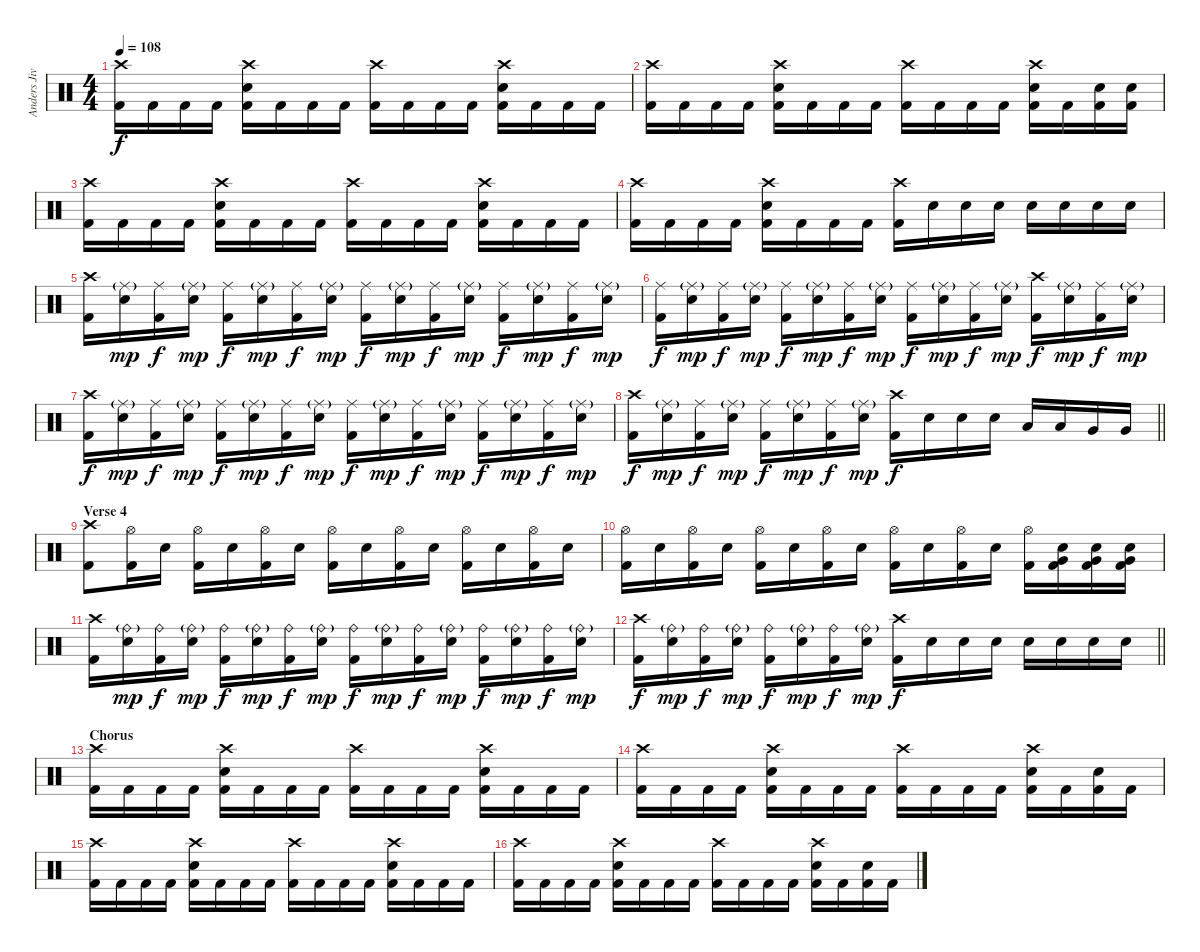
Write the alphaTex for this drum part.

\track ("Anders Jivarp" "Anders Jiv") {instrument percussion}
\staff {score}
\articulation defaults
\ts (4 4)
\section ("" "")
\tempo 108
\clef neutral
\ks c
("Crash high (hit)" "Kick (hit) 2").16{dy f} "Kick (hit) 2".16 "Kick (hit) 2".16 "Kick (hit) 2".16 ("Crash high (hit)" "Snare (hit) 2" "Kick (hit) 2").16 "Kick (hit) 2".16 "Kick (hit) 2".16 "Kick (hit) 2".16 ("Crash high (hit)" "Kick (hit) 2").16 "Kick (hit) 2".16 "Kick (hit) 2".16 "Kick (hit) 2".16 ("Crash high (hit)" "Snare (hit) 2" "Kick (hit) 2").16 "Kick (hit) 2".16 "Kick (hit) 2".16 "Kick (hit) 2".16 |
("Crash high (hit)" "Kick (hit) 2").16 "Kick (hit) 2".16 "Kick (hit) 2".16 "Kick (hit) 2".16 ("Crash high (hit)" "Snare (hit) 2" "Kick (hit) 2").16 "Kick (hit) 2".16 "Kick (hit) 2".16 "Kick (hit) 2".16 ("Crash high (hit)" "Kick (hit) 2").16 "Kick (hit) 2".16 "Kick (hit) 2".16 "Kick (hit) 2".16 ("Crash high (hit)" "Snare (hit) 2" "Kick (hit) 2").16 "Kick (hit) 2".16 ("Snare (hit) 2" "Kick (hit) 2").16 ("Snare (hit) 2" "Kick (hit) 2").16 |
("Crash high (hit)" "Kick (hit) 2").16 "Kick (hit) 2".16 "Kick (hit) 2".16 "Kick (hit) 2".16 ("Crash high (hit)" "Snare (hit) 2" "Kick (hit) 2").16 "Kick (hit) 2".16 "Kick (hit) 2".16 "Kick (hit) 2".16 ("Crash high (hit)" "Kick (hit) 2").16 "Kick (hit) 2".16 "Kick (hit) 2".16 "Kick (hit) 2".16 ("Crash high (hit)" "Snare (hit) 2" "Kick (hit) 2").16 "Kick (hit) 2".16 "Kick (hit) 2".16 "Kick (hit) 2".16 |
("Crash high (hit)" "Kick (hit) 2").16 "Kick (hit) 2".16 "Kick (hit) 2".16 "Kick (hit) 2".16 ("Crash high (hit)" "Snare (hit) 2" "Kick (hit) 2").16 "Kick (hit) 2".16 "Kick (hit) 2".16 "Kick (hit) 2".16 ("Crash high (hit)" "Kick (hit) 2").16 "Snare (hit) 2".16 "Snare (hit) 2".16 "Snare (hit) 2".16 "Snare (hit) 2".16 "Snare (hit) 2".16 "Snare (hit) 2".16 "Snare (hit) 2".16 |
("Crash high (hit)" "Kick (hit) 2").16 ("Ride (middle)"{g} "Snare (hit) 2").16{dy mp} ("Ride (middle)" "Kick (hit) 2").16{dy f} ("Ride (middle)"{g} "Snare (hit) 2").16{dy mp} ("Ride (middle)" "Kick (hit) 2").16{dy f} ("Ride (middle)"{g} "Snare (hit) 2").16{dy mp} ("Ride (middle)" "Kick (hit) 2").16{dy f} ("Ride (middle)"{g} "Snare (hit) 2").16{dy mp} ("Ride (middle)" "Kick (hit) 2").16{dy f} ("Ride (middle)"{g} "Snare (hit) 2").16{dy mp} ("Ride (middle)" "Kick (hit) 2").16{dy f} ("Ride (middle)"{g} "Snare (hit) 2").16{dy mp} ("Ride (middle)" "Kick (hit) 2").16{dy f} ("Ride (middle)"{g} "Snare (hit) 2").16{dy mp} ("Ride (middle)" "Kick (hit) 2").16{dy f} ("Ride (middle)"{g} "Snare (hit) 2").16{dy mp} |
("Ride (middle)" "Kick (hit) 2").16{dy f} ("Ride (middle)"{g} "Snare (hit) 2").16{dy mp} ("Ride (middle)" "Kick (hit) 2").16{dy f} ("Ride (middle)"{g} "Snare (hit) 2").16{dy mp} ("Ride (middle)" "Kick (hit) 2").16{dy f} ("Ride (middle)"{g} "Snare (hit) 2").16{dy mp} ("Ride (middle)" "Kick (hit) 2").16{dy f} ("Ride (middle)"{g} "Snare (hit) 2").16{dy mp} ("Ride (middle)" "Kick (hit) 2").16{dy f} ("Ride (middle)"{g} "Snare (hit) 2").16{dy mp} ("Ride (middle)" "Kick (hit) 2").16{dy f} ("Ride (middle)"{g} "Snare (hit) 2").16{dy mp} ("Crash high (hit)" "Kick (hit) 2").16{dy f} ("Ride (middle)"{g} "Snare (hit) 2").16{dy mp} ("Ride (middle)" "Kick (hit) 2").16{dy f} ("Ride (middle)"{g} "Snare (hit) 2").16{dy mp} |
("Crash high (hit)" "Kick (hit) 2").16{dy f} ("Ride (middle)"{g} "Snare (hit) 2").16{dy mp} ("Ride (middle)" "Kick (hit) 2").16{dy f} ("Ride (middle)"{g} "Snare (hit) 2").16{dy mp} ("Ride (middle)" "Kick (hit) 2").16{dy f} ("Ride (middle)"{g} "Snare (hit) 2").16{dy mp} ("Ride (middle)" "Kick (hit) 2").16{dy f} ("Ride (middle)"{g} "Snare (hit) 2").16{dy mp} ("Ride (middle)" "Kick (hit) 2").16{dy f} ("Ride (middle)"{g} "Snare (hit) 2").16{dy mp} ("Ride (middle)" "Kick (hit) 2").16{dy f} ("Ride (middle)"{g} "Snare (hit) 2").16{dy mp} ("Ride (middle)" "Kick (hit) 2").16{dy f} ("Ride (middle)"{g} "Snare (hit) 2").16{dy mp} ("Ride (middle)" "Kick (hit) 2").16{dy f} ("Ride (middle)"{g} "Snare (hit) 2").16{dy mp} |
\barLineRight lightlight
("Crash high (hit)" "Kick (hit) 2").16{dy f} ("Ride (middle)"{g} "Snare (hit) 2").16{dy mp} ("Ride (middle)" "Kick (hit) 2").16{dy f} ("Ride (middle)"{g} "Snare (hit) 2").16{dy mp} ("Ride (middle)" "Kick (hit) 2").16{dy f} ("Ride (middle)"{g} "Snare (hit) 2").16{dy mp} ("Ride (middle)" "Kick (hit) 2").16{dy f} ("Ride (middle)"{g} "Snare (hit) 2").16{dy mp} ("Crash high (hit)" "Kick (hit) 2").16{dy f} "Snare (hit) 2".16 "Snare (hit) 2".16 "Snare (hit) 2".16 "Low Tom (hit)".16 "Low Tom (hit)".16 "Very Low Tom (hit)".16 "Very Low Tom (hit)".16 |
\section ("" "Verse 4")
("Crash high (hit)" "Kick (hit) 2").8 ("Hi-Hat (open)" "Kick (hit) 2").16 "Snare (hit) 2".16 ("Hi-Hat (open)" "Kick (hit) 2").16 "Snare (hit) 2".16 ("Hi-Hat (open)" "Kick (hit) 2").16 "Snare (hit) 2".16 ("Hi-Hat (open)" "Kick (hit) 2").16 "Snare (hit) 2".16 ("Hi-Hat (open)" "Kick (hit) 2").16 "Snare (hit) 2".16 ("Hi-Hat (open)" "Kick (hit) 2").16 "Snare (hit) 2".16 ("Hi-Hat (open)" "Kick (hit) 2").16 "Snare (hit) 2".16 |
("Hi-Hat (open)" "Kick (hit) 2").16 "Snare (hit) 2".16 ("Hi-Hat (open)" "Kick (hit) 2").16 "Snare (hit) 2".16 ("Hi-Hat (open)" "Kick (hit) 2").16 "Snare (hit) 2".16 ("Hi-Hat (open)" "Kick (hit) 2").16 "Snare (hit) 2".16 ("Hi-Hat (open)" "Kick (hit) 2").16 "Snare (hit) 2".16 ("Hi-Hat (open)" "Kick (hit) 2").16 "Snare (hit) 2".16 ("Hi-Hat (open)" "Kick (hit) 2").16 ("Snare (hit) 2" "Very Low Tom (hit)" "Kick (hit) 2").16 ("Snare (hit) 2" "Very Low Tom (hit)" "Kick (hit) 2").16 ("Snare (hit) 2" "Very Low Tom (hit)" "Kick (hit) 2").16 |
("Crash high (hit)" "Kick (hit) 2").16 ("Ride (bell)"{g} "Snare (hit) 2").16{dy mp} ("Ride (bell)" "Kick (hit) 2").16{dy f} ("Ride (bell)"{g} "Snare (hit) 2").16{dy mp} ("Ride (bell)" "Kick (hit) 2").16{dy f} ("Ride (bell)"{g} "Snare (hit) 2").16{dy mp} ("Ride (bell)" "Kick (hit) 2").16{dy f} ("Ride (bell)"{g} "Snare (hit) 2").16{dy mp} ("Ride (bell)" "Kick (hit) 2").16{dy f} ("Ride (bell)"{g} "Snare (hit) 2").16{dy mp} ("Ride (bell)" "Kick (hit) 2").16{dy f} ("Ride (bell)"{g} "Snare (hit) 2").16{dy mp} ("Ride (bell)" "Kick (hit) 2").16{dy f} ("Ride (bell)"{g} "Snare (hit) 2").16{dy mp} ("Ride (bell)" "Kick (hit) 2").16{dy f} ("Ride (bell)"{g} "Snare (hit) 2").16{dy mp} |
\barLineRight lightlight
("Crash high (hit)" "Kick (hit) 2").16{dy f} ("Ride (bell)"{g} "Snare (hit) 2").16{dy mp} ("Ride (bell)" "Kick (hit) 2").16{dy f} ("Ride (bell)"{g} "Snare (hit) 2").16{dy mp} ("Ride (bell)" "Kick (hit) 2").16{dy f} ("Ride (bell)"{g} "Snare (hit) 2").16{dy mp} ("Ride (bell)" "Kick (hit) 2").16{dy f} ("Ride (bell)"{g} "Snare (hit) 2").16{dy mp} ("Crash high (hit)" "Kick (hit) 2").16{dy f} "Snare (hit) 2".16 "Snare (hit) 2".16 "Snare (hit) 2".16 "Snare (hit) 2".16 "Snare (hit) 2".16 "Snare (hit) 2".16 "Snare (hit) 2".16 |
\section ("" "Chorus")
("Crash high (hit)" "Kick (hit) 2").16 "Kick (hit) 2".16 "Kick (hit) 2".16 "Kick (hit) 2".16 ("Crash high (hit)" "Snare (hit) 2" "Kick (hit) 2").16 "Kick (hit) 2".16 "Kick (hit) 2".16 "Kick (hit) 2".16 ("Crash high (hit)" "Kick (hit) 2").16 "Kick (hit) 2".16 "Kick (hit) 2".16 "Kick (hit) 2".16 ("Crash high (hit)" "Snare (hit) 2" "Kick (hit) 2").16 "Kick (hit) 2".16 "Kick (hit) 2".16 "Kick (hit) 2".16 |
("Crash high (hit)" "Kick (hit) 2").16 "Kick (hit) 2".16 "Kick (hit) 2".16 "Kick (hit) 2".16 ("Crash high (hit)" "Snare (hit) 2" "Kick (hit) 2").16 "Kick (hit) 2".16 "Kick (hit) 2".16 "Kick (hit) 2".16 ("Crash high (hit)" "Kick (hit) 2").16 "Kick (hit) 2".16 "Kick (hit) 2".16 "Kick (hit) 2".16 ("Crash high (hit)" "Snare (hit) 2" "Kick (hit) 2").16 "Kick (hit) 2".16 ("Snare (hit) 2" "Kick (hit) 2").16 "Kick (hit) 2".16 |
("Crash high (hit)" "Kick (hit) 2").16 "Kick (hit) 2".16 "Kick (hit) 2".16 "Kick (hit) 2".16 ("Crash high (hit)" "Snare (hit) 2" "Kick (hit) 2").16 "Kick (hit) 2".16 "Kick (hit) 2".16 "Kick (hit) 2".16 ("Crash high (hit)" "Kick (hit) 2").16 "Kick (hit) 2".16 "Kick (hit) 2".16 "Kick (hit) 2".16 ("Crash high (hit)" "Snare (hit) 2" "Kick (hit) 2").16 "Kick (hit) 2".16 "Kick (hit) 2".16 "Kick (hit) 2".16 |
("Crash high (hit)" "Kick (hit) 2").16 "Kick (hit) 2".16 "Kick (hit) 2".16 "Kick (hit) 2".16 ("Crash high (hit)" "Snare (hit) 2" "Kick (hit) 2").16 "Kick (hit) 2".16 "Kick (hit) 2".16 "Kick (hit) 2".16 ("Crash high (hit)" "Kick (hit) 2").16 "Kick (hit) 2".16 "Kick (hit) 2".16 "Kick (hit) 2".16 ("Crash high (hit)" "Snare (hit) 2" "Kick (hit) 2").16 "Kick (hit) 2".16 ("Snare (hit) 2" "Kick (hit) 2").16 "Kick (hit) 2".16
